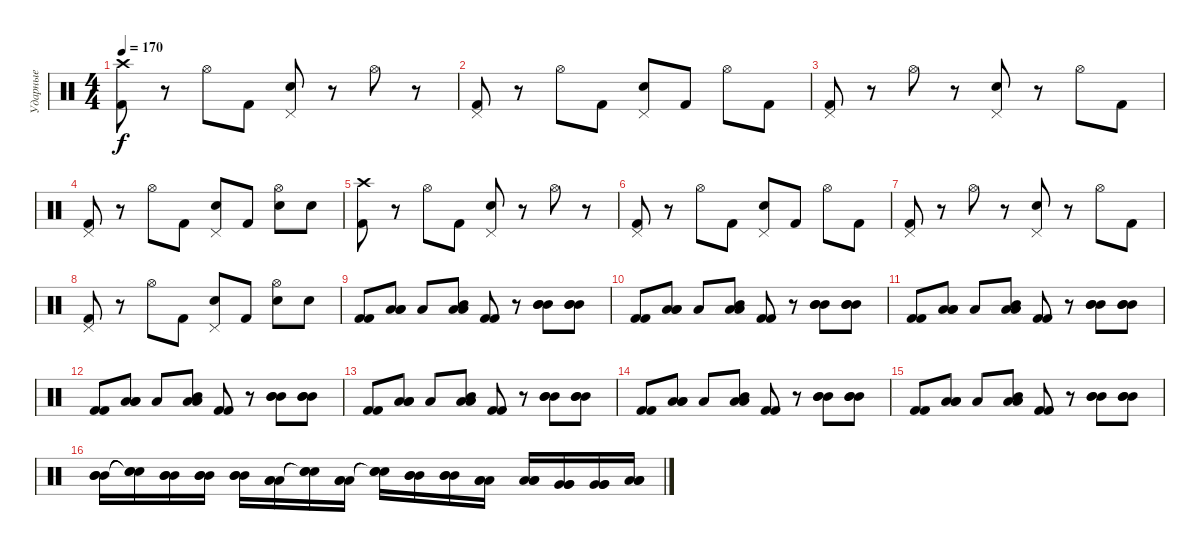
\track ("Ударные" "Ударные") {instrument percussion}
\staff {score}
\articulation defaults
\ts (4 4)
\tempo 170
\clef neutral
\ks c
("Crash high (hit)" "Kick (hit) 2").8{dy f} r.8 "Hi-Hat (open)".8 "Kick (hit) 2".8 ("Pedal Hi-Hat (hit)" "Snare (hit) 2").8 r.8 "Hi-Hat (open)".8 r.8 |
("Pedal Hi-Hat (hit)" "Kick (hit) 2").8 r.8 "Hi-Hat (open)".8 "Kick (hit) 2".8 ("Pedal Hi-Hat (hit)" "Snare (hit) 2").8 "Kick (hit) 2".8 "Hi-Hat (open)".8 "Kick (hit) 2".8 |
("Pedal Hi-Hat (hit)" "Kick (hit) 2").8 r.8 "Hi-Hat (open)".8 r.8 ("Pedal Hi-Hat (hit)" "Snare (hit) 2").8 r.8 "Hi-Hat (open)".8 "Kick (hit) 2".8 |
("Pedal Hi-Hat (hit)" "Kick (hit) 2").8 r.8 "Hi-Hat (open)".8 "Kick (hit) 2".8 ("Pedal Hi-Hat (hit)" "Snare (hit) 2").8 "Kick (hit) 2".8 ("Hi-Hat (open)" "Snare (hit) 2").8 "Snare (hit) 2".8 |
("Crash high (hit)" "Kick (hit) 2").8 r.8 "Hi-Hat (open)".8 "Kick (hit) 2".8 ("Pedal Hi-Hat (hit)" "Snare (hit) 2").8 r.8 "Hi-Hat (open)".8 r.8 |
("Pedal Hi-Hat (hit)" "Kick (hit) 2").8 r.8 "Hi-Hat (open)".8 "Kick (hit) 2".8 ("Pedal Hi-Hat (hit)" "Snare (hit) 2").8 "Kick (hit) 2".8 "Hi-Hat (open)".8 "Kick (hit) 2".8 |
("Pedal Hi-Hat (hit)" "Kick (hit) 2").8 r.8 "Hi-Hat (open)".8 r.8 ("Pedal Hi-Hat (hit)" "Snare (hit) 2").8 r.8 "Hi-Hat (open)".8 "Kick (hit) 2".8 |
("Pedal Hi-Hat (hit)" "Kick (hit) 2").8 r.8 "Hi-Hat (open)".8 "Kick (hit) 2".8 ("Pedal Hi-Hat (hit)" "Snare (hit) 2").8 "Kick (hit) 2".8 ("Hi-Hat (open)" "Snare (hit) 2").8 "Snare (hit) 2".8 |
("Kick (hit) 2" "Kick (hit) 2").8 ("Low Tom (hit)" "Low Tom (hit)" "Low Tom (hit)").8 "Low Tom (hit)".8 ("Low Tom (hit)" "Mid Tom (hit)" "Low Tom (hit)").8 ("Kick (hit) 2" "Kick (hit) 2").8 r.8 ("Mid Tom (hit)" "Mid Tom (hit)" "Mid Tom (hit)").8 ("Mid Tom (hit)" "Mid Tom (hit)" "Mid Tom (hit)").8 |
("Kick (hit) 2" "Kick (hit) 2").8 ("Low Tom (hit)" "Low Tom (hit)" "Low Tom (hit)").8 "Low Tom (hit)".8 ("Low Tom (hit)" "Mid Tom (hit)" "Low Tom (hit)").8 ("Kick (hit) 2" "Kick (hit) 2").8 r.8 ("Mid Tom (hit)" "Mid Tom (hit)" "Mid Tom (hit)").8 ("Mid Tom (hit)" "Mid Tom (hit)" "Mid Tom (hit)").8 |
("Kick (hit) 2" "Kick (hit) 2").8 ("Low Tom (hit)" "Low Tom (hit)" "Low Tom (hit)").8 "Low Tom (hit)".8 ("Low Tom (hit)" "Mid Tom (hit)" "Low Tom (hit)").8 ("Kick (hit) 2" "Kick (hit) 2").8 r.8 ("Mid Tom (hit)" "Mid Tom (hit)" "Mid Tom (hit)").8 ("Mid Tom (hit)" "Mid Tom (hit)" "Mid Tom (hit)").8 |
("Kick (hit) 2" "Kick (hit) 2").8 ("Low Tom (hit)" "Low Tom (hit)" "Low Tom (hit)").8 "Low Tom (hit)".8 ("Low Tom (hit)" "Mid Tom (hit)" "Low Tom (hit)").8 ("Kick (hit) 2" "Kick (hit) 2").8 r.8 ("Mid Tom (hit)" "Mid Tom (hit)" "Mid Tom (hit)").8 ("Mid Tom (hit)" "Mid Tom (hit)" "Mid Tom (hit)").8 |
("Kick (hit) 2" "Kick (hit) 2").8 ("Low Tom (hit)" "Low Tom (hit)" "Low Tom (hit)").8 "Low Tom (hit)".8 ("Low Tom (hit)" "Mid Tom (hit)" "Low Tom (hit)").8 ("Kick (hit) 2" "Kick (hit) 2").8 r.8 ("Mid Tom (hit)" "Mid Tom (hit)" "Mid Tom (hit)").8 ("Mid Tom (hit)" "Mid Tom (hit)" "Mid Tom (hit)").8 |
("Kick (hit) 2" "Kick (hit) 2").8 ("Low Tom (hit)" "Low Tom (hit)" "Low Tom (hit)").8 "Low Tom (hit)".8 ("Low Tom (hit)" "Mid Tom (hit)" "Low Tom (hit)").8 ("Kick (hit) 2" "Kick (hit) 2").8 r.8 ("Mid Tom (hit)" "Mid Tom (hit)" "Mid Tom (hit)").8 ("Mid Tom (hit)" "Mid Tom (hit)" "Mid Tom (hit)").8 |
("Kick (hit) 2" "Kick (hit) 2").8 ("Low Tom (hit)" "Low Tom (hit)" "Low Tom (hit)").8 "Low Tom (hit)".8 ("Low Tom (hit)" "Mid Tom (hit)" "Low Tom (hit)").8 ("Kick (hit) 2" "Kick (hit) 2").8 r.8 ("Mid Tom (hit)" "Mid Tom (hit)" "Mid Tom (hit)").8 ("Mid Tom (hit)" "Mid Tom (hit)" "Mid Tom (hit)").8 |
("Mid Tom (hit)" "Mid Tom (hit)" "Mid Tom (hit)").16 ("Snare (hit)"{t} "Snare (hit)"{t} "Snare (hit)"{t}).16 ("Mid Tom (hit)" "Mid Tom (hit)" "Mid Tom (hit)").16 ("Mid Tom (hit)" "Mid Tom (hit)" "Mid Tom (hit)").16 ("Mid Tom (hit)" "Mid Tom (hit)" "Mid Tom (hit)").16 ("Low Tom (hit)" "Low Tom (hit)" "Low Tom (hit)").16 ("Snare (hit)"{t} "Snare (hit)"{t} "Snare (hit)"{t}).16 ("Low Tom (hit)" "Low Tom (hit)" "Low Tom (hit)").16 ("Snare (hit)"{t} "Snare (hit)"{t} "Snare (hit)"{t}).16 ("Mid Tom (hit)" "Mid Tom (hit)" "Mid Tom (hit)").16 ("Mid Tom (hit)" "Mid Tom (hit)" "Mid Tom (hit)").16 ("Low Tom (hit)" "Low Tom (hit)" "Low Tom (hit)").16 ("Low Tom (hit)" "Low Tom (hit)" "Low Tom (hit)").16 ("Very Low Tom (hit)" "Very Low Tom (hit)" "Very Low Tom (hit)").16 ("Very Low Tom (hit)" "Very Low Tom (hit)" "Very Low Tom (hit)").16 ("Low Floor Tom (hit)" "Low Floor Tom (hit)" "Low Floor Tom (hit)").16
